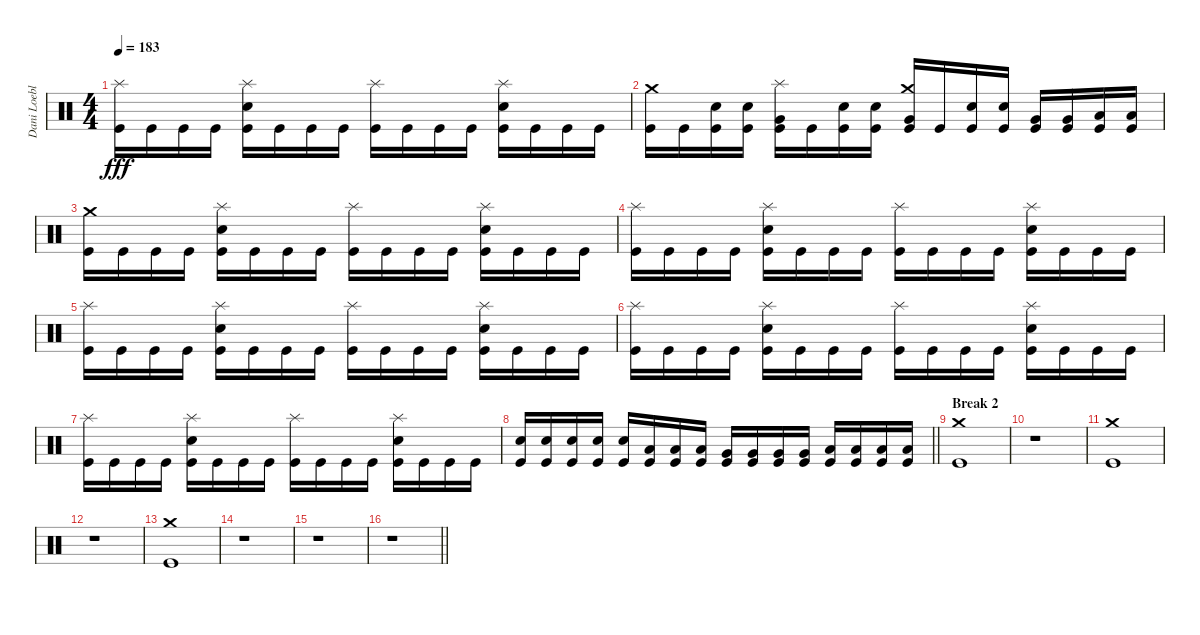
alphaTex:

\track ("Dani Loeble" "Dani Loebl") {instrument percussion}
\staff {score}
\articulation defaults
\ts (4 4)
\tempo 183
\clef neutral
\ks c
("Splash (hit)" "Kick (hit)").16{dy fff} "Kick (hit)".16 "Kick (hit)".16 "Kick (hit)".16 ("Splash (hit)" "Electric Snare (hit)" "Kick (hit)").16 "Kick (hit)".16 "Kick (hit)".16 "Kick (hit)".16 ("Splash (hit)" "Kick (hit)").16 "Kick (hit)".16 "Kick (hit)".16 "Kick (hit)".16 ("Splash (hit)" "Electric Snare (hit)" "Kick (hit)").16 "Kick (hit)".16 "Kick (hit)".16 "Kick (hit)".16 |
("Crash medium (hit)" "Kick (hit)").16 "Kick (hit)".16 ("Electric Snare (hit)" "Kick (hit)").16 ("Electric Snare (hit)" "Kick (hit)").16 ("Splash (hit)" "Very Low Tom (hit)" "Kick (hit)").16 "Kick (hit)".16 ("Electric Snare (hit)" "Kick (hit)").16 ("Electric Snare (hit)" "Kick (hit)").16 ("Crash medium (hit)" "Very Low Tom (hit)" "Kick (hit)").16 "Kick (hit)".16 ("Electric Snare (hit)" "Kick (hit)").16 ("Electric Snare (hit)" "Kick (hit)").16 ("Very Low Tom (hit)" "Kick (hit)").16 ("Very Low Tom (hit)" "Kick (hit)").16 ("Low Floor Tom (hit)" "Kick (hit)").16 ("Low Floor Tom (hit)" "Kick (hit)").16 |
("Crash medium (hit)" "Kick (hit)").16 "Kick (hit)".16 "Kick (hit)".16 "Kick (hit)".16 ("Splash (hit)" "Electric Snare (hit)" "Kick (hit)").16 "Kick (hit)".16 "Kick (hit)".16 "Kick (hit)".16 ("Splash (hit)" "Kick (hit)").16 "Kick (hit)".16 "Kick (hit)".16 "Kick (hit)".16 ("Splash (hit)" "Electric Snare (hit)" "Kick (hit)").16 "Kick (hit)".16 "Kick (hit)".16 "Kick (hit)".16 |
("Splash (hit)" "Kick (hit)").16 "Kick (hit)".16 "Kick (hit)".16 "Kick (hit)".16 ("Splash (hit)" "Electric Snare (hit)" "Kick (hit)").16 "Kick (hit)".16 "Kick (hit)".16 "Kick (hit)".16 ("Splash (hit)" "Kick (hit)").16 "Kick (hit)".16 "Kick (hit)".16 "Kick (hit)".16 ("Splash (hit)" "Electric Snare (hit)" "Kick (hit)").16 "Kick (hit)".16 "Kick (hit)".16 "Kick (hit)".16 |
("Splash (hit)" "Kick (hit)").16 "Kick (hit)".16 "Kick (hit)".16 "Kick (hit)".16 ("Splash (hit)" "Electric Snare (hit)" "Kick (hit)").16 "Kick (hit)".16 "Kick (hit)".16 "Kick (hit)".16 ("Splash (hit)" "Kick (hit)").16 "Kick (hit)".16 "Kick (hit)".16 "Kick (hit)".16 ("Splash (hit)" "Electric Snare (hit)" "Kick (hit)").16 "Kick (hit)".16 "Kick (hit)".16 "Kick (hit)".16 |
("Splash (hit)" "Kick (hit)").16 "Kick (hit)".16 "Kick (hit)".16 "Kick (hit)".16 ("Splash (hit)" "Electric Snare (hit)" "Kick (hit)").16 "Kick (hit)".16 "Kick (hit)".16 "Kick (hit)".16 ("Splash (hit)" "Kick (hit)").16 "Kick (hit)".16 "Kick (hit)".16 "Kick (hit)".16 ("Splash (hit)" "Electric Snare (hit)" "Kick (hit)").16 "Kick (hit)".16 "Kick (hit)".16 "Kick (hit)".16 |
("Splash (hit)" "Kick (hit)").16 "Kick (hit)".16 "Kick (hit)".16 "Kick (hit)".16 ("Splash (hit)" "Electric Snare (hit)" "Kick (hit)").16 "Kick (hit)".16 "Kick (hit)".16 "Kick (hit)".16 ("Splash (hit)" "Kick (hit)").16 "Kick (hit)".16 "Kick (hit)".16 "Kick (hit)".16 ("Splash (hit)" "Electric Snare (hit)" "Kick (hit)").16 "Kick (hit)".16 "Kick (hit)".16 "Kick (hit)".16 |
\barLineRight lightlight
("Electric Snare (hit)" "Kick (hit)").16 ("Electric Snare (hit)" "Kick (hit)").16 ("Electric Snare (hit)" "Kick (hit)").16 ("Electric Snare (hit)" "Kick (hit)").16 ("Electric Snare (hit)" "Kick (hit)").16 ("Low Tom (hit)" "Kick (hit)").16 ("Low Tom (hit)" "Kick (hit)").16 ("Low Tom (hit)" "Kick (hit)").16 ("Very Low Tom (hit)" "Kick (hit)").16 ("Very Low Tom (hit)" "Kick (hit)").16 ("Very Low Tom (hit)" "Kick (hit)").16 ("Very Low Tom (hit)" "Kick (hit)").16 ("Low Floor Tom (hit)" "Kick (hit)").16 ("Low Floor Tom (hit)" "Kick (hit)").16 ("Low Floor Tom (hit)" "Kick (hit)").16 ("Low Floor Tom (hit)" "Kick (hit)").16 |
\section ("" "Break 2")
("Crash medium (hit)" "Kick (hit)").1 |
r.1 |
("Crash medium (hit)" "Kick (hit)").1 |
r.1 |
("Crash medium (hit)" "Kick (hit)").1 |
r.1 |
r.1 |
\barLineRight lightlight
r.1
